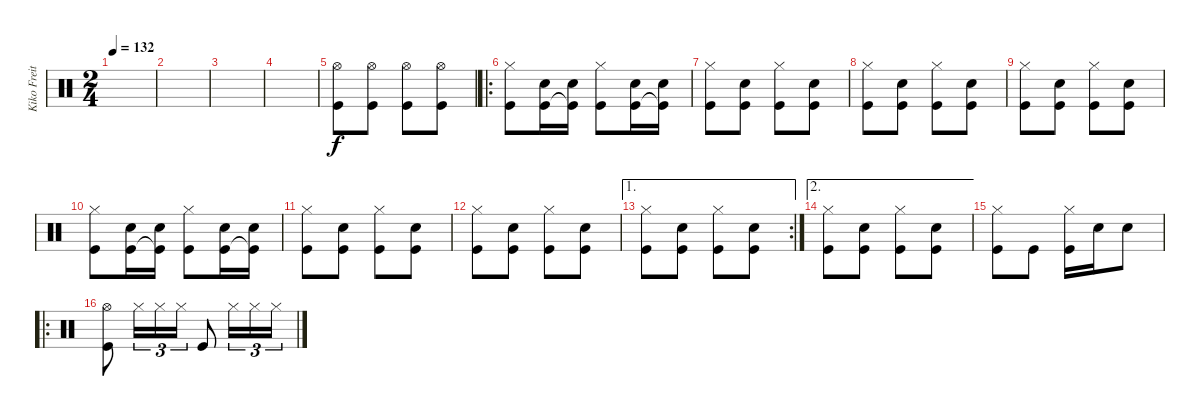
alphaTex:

\track ("Kiko Freitas" "Kiko Freit") {instrument percussion}
\staff {score}
\articulation defaults
\ts (2 4)
\tempo 132
\clef neutral
\ks c
|
|
|
|
("Kick (hit)" "Hi-Hat (open)").8 ("Kick (hit)" "Hi-Hat (open)").8 ("Kick (hit)" "Hi-Hat (open)").8 ("Kick (hit)" "Hi-Hat (open)").8 |
\ro
("Kick (hit)" "Hi-Hat (closed)").8 ("Kick (hit)" "Electric Snare (hit)").16 ("Kick (hit)"{t} "Electric Snare (hit)").16 ("Kick (hit)" "Hi-Hat (closed)").8 ("Kick (hit)" "Electric Snare (hit)").16 ("Kick (hit)"{t} "Electric Snare (hit)").16 |
("Kick (hit)" "Hi-Hat (closed)").8 ("Kick (hit)" "Electric Snare (hit)").8 ("Kick (hit)" "Hi-Hat (closed)").8 ("Kick (hit)" "Electric Snare (hit)").8 |
("Kick (hit)" "Hi-Hat (closed)").8 ("Kick (hit)" "Electric Snare (hit)").8 ("Kick (hit)" "Hi-Hat (closed)").8 ("Kick (hit)" "Electric Snare (hit)").8 |
("Kick (hit)" "Hi-Hat (closed)").8 ("Kick (hit)" "Electric Snare (hit)").8 ("Kick (hit)" "Hi-Hat (closed)").8 ("Kick (hit)" "Electric Snare (hit)").8 |
("Kick (hit)" "Hi-Hat (closed)").8 ("Kick (hit)" "Electric Snare (hit)").16 ("Kick (hit)"{t} "Electric Snare (hit)").16 ("Kick (hit)" "Hi-Hat (closed)").8 ("Kick (hit)" "Electric Snare (hit)").16 ("Kick (hit)"{t} "Electric Snare (hit)").16 |
("Kick (hit)" "Hi-Hat (closed)").8 ("Kick (hit)" "Electric Snare (hit)").8 ("Kick (hit)" "Hi-Hat (closed)").8 ("Kick (hit)" "Electric Snare (hit)").8 |
("Kick (hit)" "Hi-Hat (closed)").8 ("Kick (hit)" "Electric Snare (hit)").8 ("Kick (hit)" "Hi-Hat (closed)").8 ("Kick (hit)" "Electric Snare (hit)").8 |
\ae 1
\rc 2
("Kick (hit)" "Hi-Hat (closed)").8 ("Kick (hit)" "Electric Snare (hit)").8 ("Kick (hit)" "Hi-Hat (closed)").8 ("Kick (hit)" "Electric Snare (hit)").8 |
\ae 2
("Kick (hit)" "Hi-Hat (closed)").8 ("Kick (hit)" "Electric Snare (hit)").8 ("Kick (hit)" "Hi-Hat (closed)").8 ("Kick (hit)" "Electric Snare (hit)").8 |
("Kick (hit)" "Hi-Hat (closed)").8 "Kick (hit)".8 ("Kick (hit)" "Hi-Hat (closed)").16 "Electric Snare (hit)".16 "Electric Snare (hit)".8 |
\ro
("Kick (hit)" "Hi-Hat (open)").8 "Hi-Hat (closed)".16{tu (3 2)} "Hi-Hat (closed)".16{tu (3 2)} "Hi-Hat (closed)".16{tu (3 2)} "Kick (hit)".8 "Hi-Hat (closed)".16{tu (3 2)} "Hi-Hat (closed)".16{tu (3 2)} "Hi-Hat (closed)".16{tu (3 2)}
